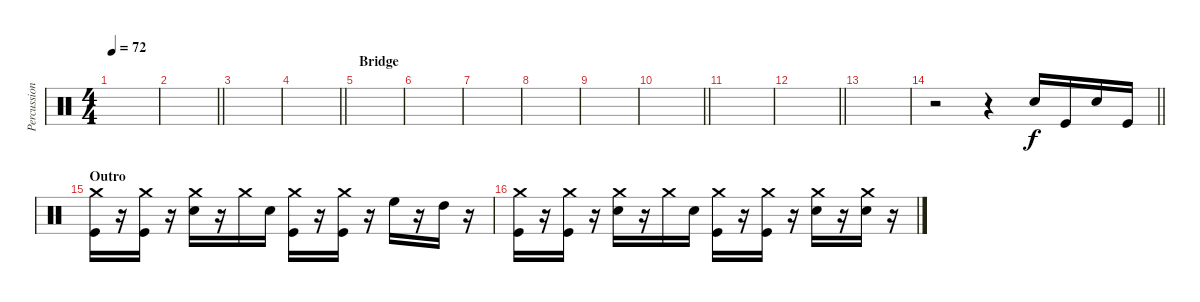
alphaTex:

\track ("Percussion" "Percussion") {instrument percussion}
\staff {score}
\articulation defaults
\ts (4 4)
\tempo 72
\clef neutral
\ks c
|
\barLineRight lightlight
|
|
\barLineRight lightlight
|
\section ("" "Bridge")
|
|
|
|
|
\barLineRight lightlight
|
|
\barLineRight lightlight
|
|
\barLineRight lightlight
r.2 r.4 "Electric Snare (hit)".16 "Kick (hit)".16 "Electric Snare (hit)".16 "Kick (hit)".16 |
\section ("" "Outro")
("Crash medium (hit)" "Kick (hit)").16 r.16 ("Crash medium (hit)" "Kick (hit)").16 r.16 ("Crash medium (hit)" "Electric Snare (hit)").16 r.16 "Crash medium (hit)".16 "Electric Snare (hit)".16 ("Crash medium (hit)" "Kick (hit)").16 r.16 ("Crash medium (hit)" "Kick (hit)").16 r.16 "High Floor Tom (hit)".16 r.16 "High Tom (hit)".16 r.16 |
("Crash medium (hit)" "Kick (hit)").16 r.16 ("Crash medium (hit)" "Kick (hit)").16 r.16 ("Crash medium (hit)" "Electric Snare (hit)").16 r.16 "Crash medium (hit)".16 "Electric Snare (hit)".16 ("Crash medium (hit)" "Kick (hit)").16 r.16 ("Crash medium (hit)" "Kick (hit)").16 r.16 ("Crash medium (hit)" "Electric Snare (hit)").16 r.16 ("Crash medium (hit)" "Electric Snare (hit)").16 r.16
